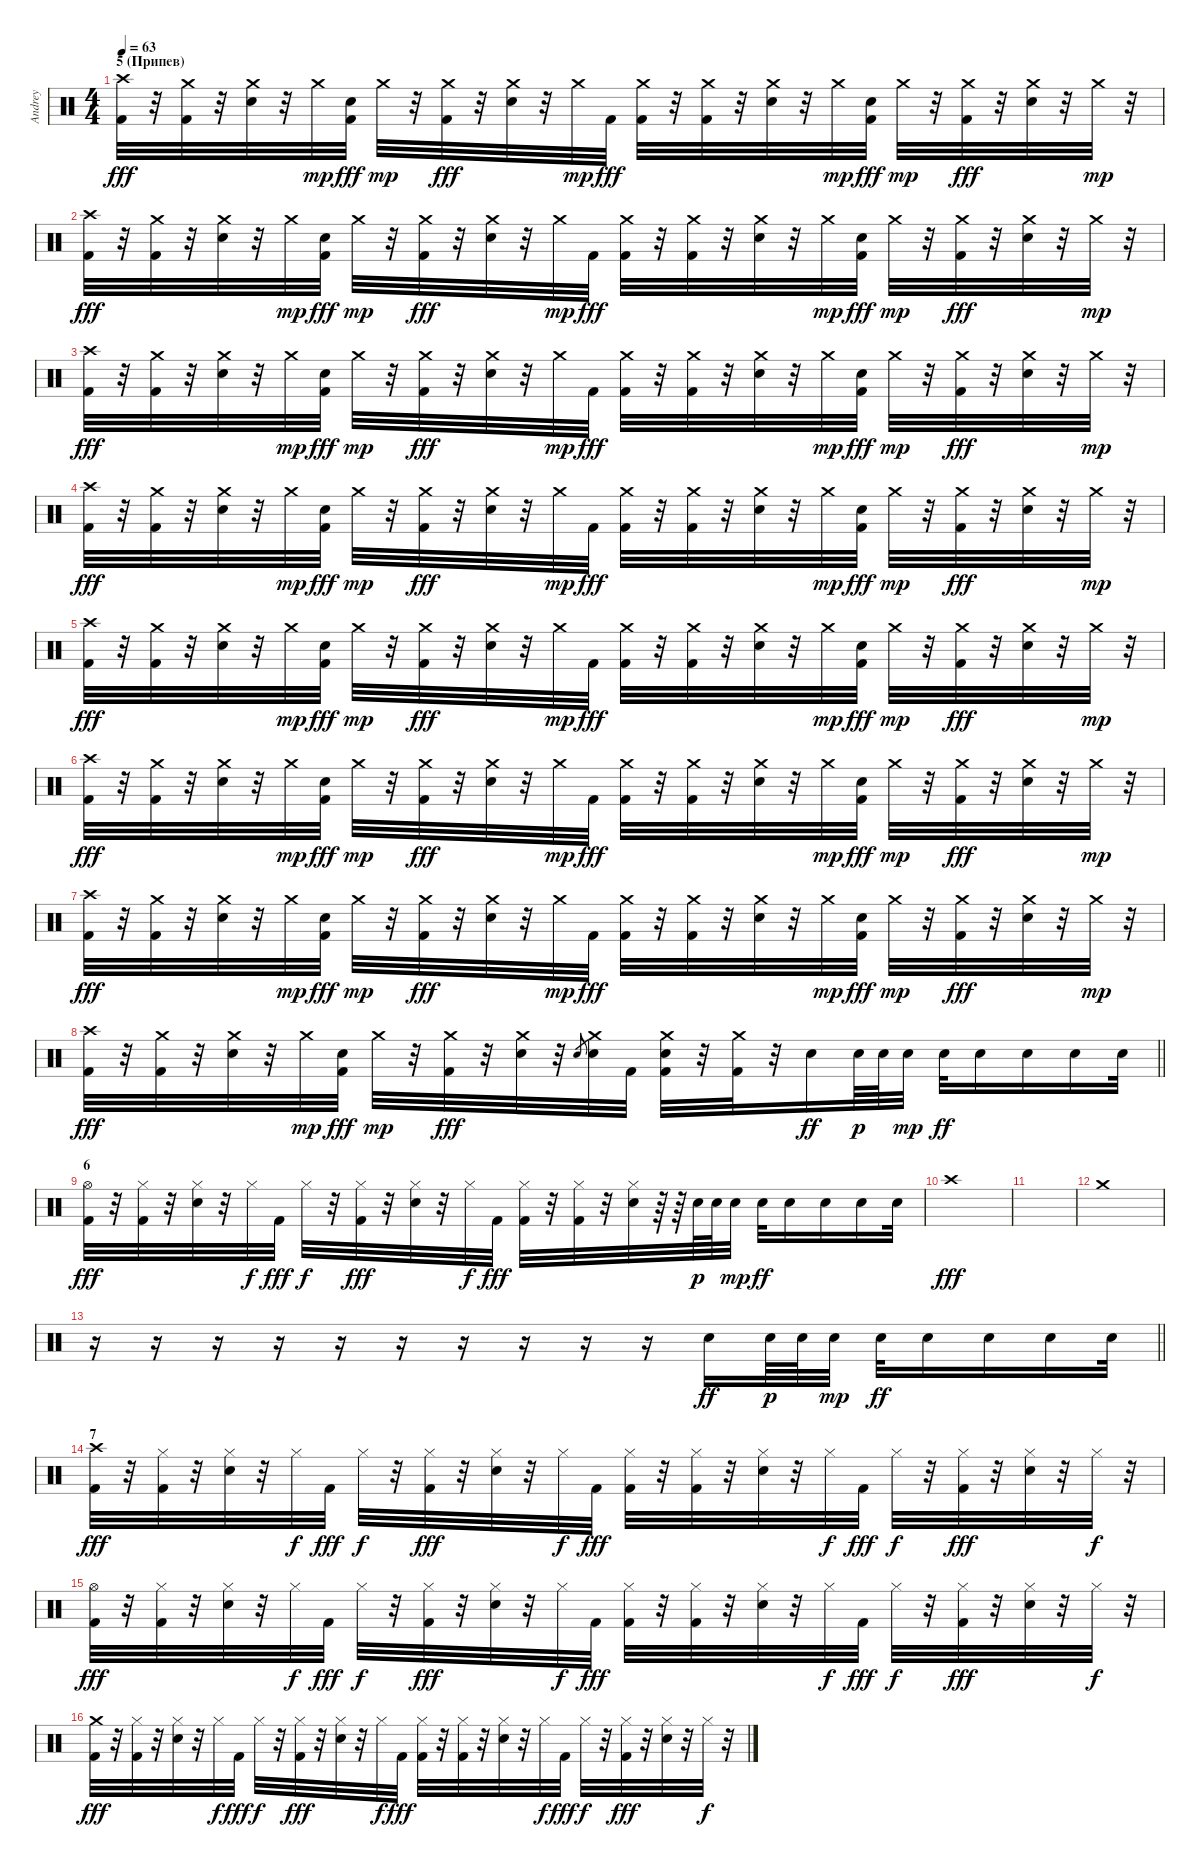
\track ("Andrey" "Andrey") {instrument percussion}
\staff {score}
\articulation defaults
\ts (4 4)
\section ("" "5 (Припев)")
\tempo 63
\clef neutral
\ks c
("Crash high (hit)" "Kick (hit) 2").32{dy fff} r.32 ("Crash medium (hit)" "Kick (hit) 2").32 r.32 ("Crash medium (hit)" "Snare (hit) 2").32 r.32 "Crash medium (hit)".32{dy mp} ("Snare (hit) 2" "Kick (hit) 2").32{dy fff} "Crash medium (hit)".32{dy mp} r.32 ("Crash medium (hit)" "Kick (hit) 2").32{dy fff} r.32 ("Crash medium (hit)" "Snare (hit) 2").32 r.32 "Crash medium (hit)".32{dy mp} "Kick (hit) 2".32{dy fff} ("Crash medium (hit)" "Kick (hit) 2").32 r.32 ("Crash medium (hit)" "Kick (hit) 2").32 r.32 ("Crash medium (hit)" "Snare (hit) 2").32 r.32 "Crash medium (hit)".32{dy mp} ("Snare (hit) 2" "Kick (hit) 2").32{dy fff} "Crash medium (hit)".32{dy mp} r.32 ("Crash medium (hit)" "Kick (hit) 2").32{dy fff} r.32 ("Crash medium (hit)" "Snare (hit) 2").32 r.32 "Crash medium (hit)".32{dy mp} r.32 |
("Crash high (hit)" "Kick (hit) 2").32{dy fff} r.32 ("Crash medium (hit)" "Kick (hit) 2").32 r.32 ("Crash medium (hit)" "Snare (hit) 2").32 r.32 "Crash medium (hit)".32{dy mp} ("Snare (hit) 2" "Kick (hit) 2").32{dy fff} "Crash medium (hit)".32{dy mp} r.32 ("Crash medium (hit)" "Kick (hit) 2").32{dy fff} r.32 ("Crash medium (hit)" "Snare (hit) 2").32 r.32 "Crash medium (hit)".32{dy mp} "Kick (hit) 2".32{dy fff} ("Crash medium (hit)" "Kick (hit) 2").32 r.32 ("Crash medium (hit)" "Kick (hit) 2").32 r.32 ("Crash medium (hit)" "Snare (hit) 2").32 r.32 "Crash medium (hit)".32{dy mp} ("Snare (hit) 2" "Kick (hit) 2").32{dy fff} "Crash medium (hit)".32{dy mp} r.32 ("Crash medium (hit)" "Kick (hit) 2").32{dy fff} r.32 ("Crash medium (hit)" "Snare (hit) 2").32 r.32 "Crash medium (hit)".32{dy mp} r.32 |
("Crash high (hit)" "Kick (hit) 2").32{dy fff} r.32 ("Crash medium (hit)" "Kick (hit) 2").32 r.32 ("Crash medium (hit)" "Snare (hit) 2").32 r.32 "Crash medium (hit)".32{dy mp} ("Snare (hit) 2" "Kick (hit) 2").32{dy fff} "Crash medium (hit)".32{dy mp} r.32 ("Crash medium (hit)" "Kick (hit) 2").32{dy fff} r.32 ("Crash medium (hit)" "Snare (hit) 2").32 r.32 "Crash medium (hit)".32{dy mp} "Kick (hit) 2".32{dy fff} ("Crash medium (hit)" "Kick (hit) 2").32 r.32 ("Crash medium (hit)" "Kick (hit) 2").32 r.32 ("Crash medium (hit)" "Snare (hit) 2").32 r.32 "Crash medium (hit)".32{dy mp} ("Snare (hit) 2" "Kick (hit) 2").32{dy fff} "Crash medium (hit)".32{dy mp} r.32 ("Crash medium (hit)" "Kick (hit) 2").32{dy fff} r.32 ("Crash medium (hit)" "Snare (hit) 2").32 r.32 "Crash medium (hit)".32{dy mp} r.32 |
("Crash high (hit)" "Kick (hit) 2").32{dy fff} r.32 ("Crash medium (hit)" "Kick (hit) 2").32 r.32 ("Crash medium (hit)" "Snare (hit) 2").32 r.32 "Crash medium (hit)".32{dy mp} ("Snare (hit) 2" "Kick (hit) 2").32{dy fff} "Crash medium (hit)".32{dy mp} r.32 ("Crash medium (hit)" "Kick (hit) 2").32{dy fff} r.32 ("Crash medium (hit)" "Snare (hit) 2").32 r.32 "Crash medium (hit)".32{dy mp} "Kick (hit) 2".32{dy fff} ("Crash medium (hit)" "Kick (hit) 2").32 r.32 ("Crash medium (hit)" "Kick (hit) 2").32 r.32 ("Crash medium (hit)" "Snare (hit) 2").32 r.32 "Crash medium (hit)".32{dy mp} ("Snare (hit) 2" "Kick (hit) 2").32{dy fff} "Crash medium (hit)".32{dy mp} r.32 ("Crash medium (hit)" "Kick (hit) 2").32{dy fff} r.32 ("Crash medium (hit)" "Snare (hit) 2").32 r.32 "Crash medium (hit)".32{dy mp} r.32 |
("Crash high (hit)" "Kick (hit) 2").32{dy fff} r.32 ("Crash medium (hit)" "Kick (hit) 2").32 r.32 ("Crash medium (hit)" "Snare (hit) 2").32 r.32 "Crash medium (hit)".32{dy mp} ("Snare (hit) 2" "Kick (hit) 2").32{dy fff} "Crash medium (hit)".32{dy mp} r.32 ("Crash medium (hit)" "Kick (hit) 2").32{dy fff} r.32 ("Crash medium (hit)" "Snare (hit) 2").32 r.32 "Crash medium (hit)".32{dy mp} "Kick (hit) 2".32{dy fff} ("Crash medium (hit)" "Kick (hit) 2").32 r.32 ("Crash medium (hit)" "Kick (hit) 2").32 r.32 ("Crash medium (hit)" "Snare (hit) 2").32 r.32 "Crash medium (hit)".32{dy mp} ("Snare (hit) 2" "Kick (hit) 2").32{dy fff} "Crash medium (hit)".32{dy mp} r.32 ("Crash medium (hit)" "Kick (hit) 2").32{dy fff} r.32 ("Crash medium (hit)" "Snare (hit) 2").32 r.32 "Crash medium (hit)".32{dy mp} r.32 |
("Crash high (hit)" "Kick (hit) 2").32{dy fff} r.32 ("Crash medium (hit)" "Kick (hit) 2").32 r.32 ("Crash medium (hit)" "Snare (hit) 2").32 r.32 "Crash medium (hit)".32{dy mp} ("Snare (hit) 2" "Kick (hit) 2").32{dy fff} "Crash medium (hit)".32{dy mp} r.32 ("Crash medium (hit)" "Kick (hit) 2").32{dy fff} r.32 ("Crash medium (hit)" "Snare (hit) 2").32 r.32 "Crash medium (hit)".32{dy mp} "Kick (hit) 2".32{dy fff} ("Crash medium (hit)" "Kick (hit) 2").32 r.32 ("Crash medium (hit)" "Kick (hit) 2").32 r.32 ("Crash medium (hit)" "Snare (hit) 2").32 r.32 "Crash medium (hit)".32{dy mp} ("Snare (hit) 2" "Kick (hit) 2").32{dy fff} "Crash medium (hit)".32{dy mp} r.32 ("Crash medium (hit)" "Kick (hit) 2").32{dy fff} r.32 ("Crash medium (hit)" "Snare (hit) 2").32 r.32 "Crash medium (hit)".32{dy mp} r.32 |
("Crash high (hit)" "Kick (hit) 2").32{dy fff} r.32 ("Crash medium (hit)" "Kick (hit) 2").32 r.32 ("Crash medium (hit)" "Snare (hit) 2").32 r.32 "Crash medium (hit)".32{dy mp} ("Snare (hit) 2" "Kick (hit) 2").32{dy fff} "Crash medium (hit)".32{dy mp} r.32 ("Crash medium (hit)" "Kick (hit) 2").32{dy fff} r.32 ("Crash medium (hit)" "Snare (hit) 2").32 r.32 "Crash medium (hit)".32{dy mp} "Kick (hit) 2".32{dy fff} ("Crash medium (hit)" "Kick (hit) 2").32 r.32 ("Crash medium (hit)" "Kick (hit) 2").32 r.32 ("Crash medium (hit)" "Snare (hit) 2").32 r.32 "Crash medium (hit)".32{dy mp} ("Snare (hit) 2" "Kick (hit) 2").32{dy fff} "Crash medium (hit)".32{dy mp} r.32 ("Crash medium (hit)" "Kick (hit) 2").32{dy fff} r.32 ("Crash medium (hit)" "Snare (hit) 2").32 r.32 "Crash medium (hit)".32{dy mp} r.32 |
\barLineRight lightlight
("Crash high (hit)" "Kick (hit) 2").32{dy fff} r.32 ("Crash medium (hit)" "Kick (hit) 2").32 r.32 ("Crash medium (hit)" "Snare (hit) 2").32 r.32 "Crash medium (hit)".32{dy mp} ("Snare (hit) 2" "Kick (hit) 2").32{dy fff} "Crash medium (hit)".32{dy mp} r.32 ("Crash medium (hit)" "Kick (hit) 2").32{dy fff} r.32 ("Crash medium (hit)" "Snare (hit) 2").32 r.32 "Snare (hit) 2".8{gr} ("Crash medium (hit)" "Electric Snare (hit)").32 "Kick (hit) 2".32 ("Crash medium (hit)" "Electric Snare (hit)" "Kick (hit) 2").32 r.32 ("Crash medium (hit)" "Kick (hit) 2").32 r.32 "Electric Snare (hit)".16{dy ff} "Electric Snare (hit)".64{dy p} "Electric Snare (hit)".64 "Electric Snare (hit)".32{dy mp} "Electric Snare (hit)".32{dy ff} "Electric Snare (hit)".16 "Electric Snare (hit)".16 "Electric Snare (hit)".16 "Electric Snare (hit)".32 |
\section ("" "6")
("Hi-Hat (open)" "Kick (hit) 2").32{dy fff} r.32 ("Hi-Hat (closed)" "Kick (hit) 2").32 r.32 ("Hi-Hat (closed)" "Snare (hit) 2").32 r.32 "Hi-Hat (closed)".32{dy f} "Kick (hit) 2".32{dy fff} "Hi-Hat (closed)".32{dy f} r.32 ("Hi-Hat (closed)" "Kick (hit) 2").32{dy fff} r.32 ("Hi-Hat (closed)" "Snare (hit) 2").32 r.32 "Hi-Hat (closed)".32{dy f} "Kick (hit) 2".32{dy fff} ("Hi-Hat (closed)" "Kick (hit) 2").32 r.32 ("Hi-Hat (closed)" "Kick (hit) 2").32 r.32 ("Hi-Hat (closed)" "Snare (hit) 2").32 r.64 r.64 "Electric Snare (hit)".64{dy p} "Electric Snare (hit)".64 "Electric Snare (hit)".32{dy mp} "Electric Snare (hit)".32{dy ff} "Electric Snare (hit)".16 "Electric Snare (hit)".16 "Electric Snare (hit)".16 "Electric Snare (hit)".32 |
"Crash high (hit)".1{dy fff} |
|
"Crash medium (hit)".1 |
\barLineRight lightlight
r.16 r.16 r.16 r.16 r.16 r.16 r.16 r.16 r.16 r.16 "Electric Snare (hit)".16{dy ff} "Electric Snare (hit)".64{dy p} "Electric Snare (hit)".64 "Electric Snare (hit)".32{dy mp} "Electric Snare (hit)".32{dy ff} "Electric Snare (hit)".16 "Electric Snare (hit)".16 "Electric Snare (hit)".16 "Electric Snare (hit)".32 |
\section ("" "7")
("Crash high (hit)" "Kick (hit) 2").32{dy fff} r.32 ("Hi-Hat (closed)" "Kick (hit) 2").32 r.32 ("Hi-Hat (closed)" "Snare (hit) 2").32 r.32 "Hi-Hat (closed)".32{dy f} "Kick (hit) 2".32{dy fff} "Hi-Hat (closed)".32{dy f} r.32 ("Hi-Hat (closed)" "Kick (hit) 2").32{dy fff} r.32 ("Hi-Hat (closed)" "Snare (hit) 2").32 r.32 "Hi-Hat (closed)".32{dy f} "Kick (hit) 2".32{dy fff} ("Hi-Hat (closed)" "Kick (hit) 2").32 r.32 ("Hi-Hat (closed)" "Kick (hit) 2").32 r.32 ("Hi-Hat (closed)" "Snare (hit) 2").32 r.32 "Hi-Hat (closed)".32{dy f} "Kick (hit) 2".32{dy fff} "Hi-Hat (closed)".32{dy f} r.32 ("Hi-Hat (closed)" "Kick (hit) 2").32{dy fff} r.32 ("Hi-Hat (closed)" "Snare (hit) 2").32 r.32 "Hi-Hat (closed)".32{dy f} r.32 |
("Hi-Hat (open)" "Kick (hit) 2").32{dy fff} r.32 ("Hi-Hat (closed)" "Kick (hit) 2").32 r.32 ("Hi-Hat (closed)" "Snare (hit) 2").32 r.32 "Hi-Hat (closed)".32{dy f} "Kick (hit) 2".32{dy fff} "Hi-Hat (closed)".32{dy f} r.32 ("Hi-Hat (closed)" "Kick (hit) 2").32{dy fff} r.32 ("Hi-Hat (closed)" "Snare (hit) 2").32 r.32 "Hi-Hat (closed)".32{dy f} "Kick (hit) 2".32{dy fff} ("Hi-Hat (closed)" "Kick (hit) 2").32 r.32 ("Hi-Hat (closed)" "Kick (hit) 2").32 r.32 ("Hi-Hat (closed)" "Snare (hit) 2").32 r.32 "Hi-Hat (closed)".32{dy f} "Kick (hit) 2".32{dy fff} "Hi-Hat (closed)".32{dy f} r.32 ("Hi-Hat (closed)" "Kick (hit) 2").32{dy fff} r.32 ("Hi-Hat (closed)" "Snare (hit) 2").32 r.32 "Hi-Hat (closed)".32{dy f} r.32 |
("Crash medium (hit)" "Kick (hit) 2").32{dy fff} r.32 ("Hi-Hat (closed)" "Kick (hit) 2").32 r.32 ("Hi-Hat (closed)" "Snare (hit) 2").32 r.32 "Hi-Hat (closed)".32{dy f} "Kick (hit) 2".32{dy fff} "Hi-Hat (closed)".32{dy f} r.32 ("Hi-Hat (closed)" "Kick (hit) 2").32{dy fff} r.32 ("Hi-Hat (closed)" "Snare (hit) 2").32 r.32 "Hi-Hat (closed)".32{dy f} "Kick (hit) 2".32{dy fff} ("Hi-Hat (closed)" "Kick (hit) 2").32 r.32 ("Hi-Hat (closed)" "Kick (hit) 2").32 r.32 ("Hi-Hat (closed)" "Snare (hit) 2").32 r.32 "Hi-Hat (closed)".32{dy f} "Kick (hit) 2".32{dy fff} "Hi-Hat (closed)".32{dy f} r.32 ("Hi-Hat (closed)" "Kick (hit) 2").32{dy fff} r.32 ("Hi-Hat (closed)" "Snare (hit) 2").32 r.32 "Hi-Hat (closed)".32{dy f} r.32
